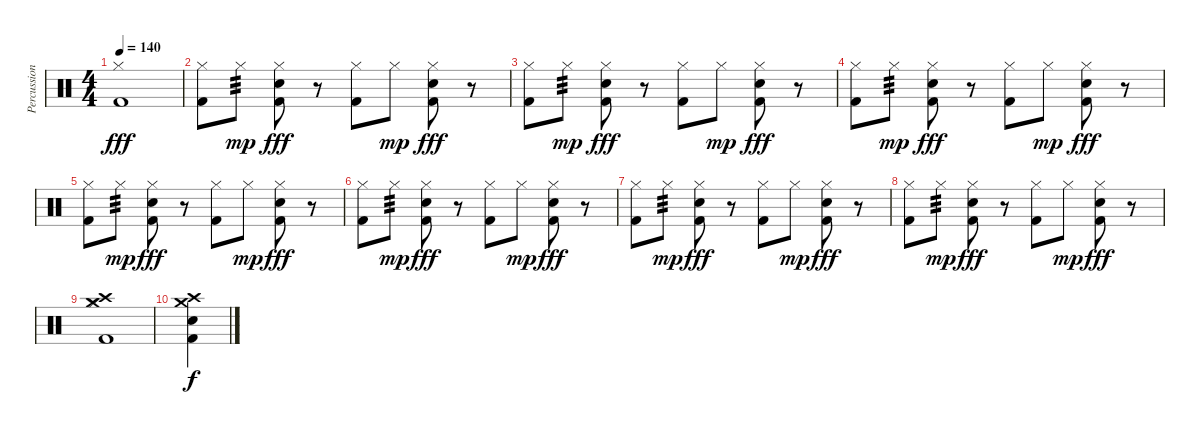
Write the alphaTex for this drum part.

\track ("Percussion" "Percussion") {instrument percussion}
\staff {score}
\articulation defaults
\ts (4 4)
\tempo 140
\clef neutral
\ks c
("Hi-Hat (closed)" "Kick (hit) 2").1{dy fff} |
("Hi-Hat (closed)" "Kick (hit) 2").8 "Hi-Hat (closed)".8{tp 3 dy mp} ("Hi-Hat (closed)" "Electric Snare (hit)" "Kick (hit) 2").8{dy fff} r.8 ("Hi-Hat (closed)" "Kick (hit) 2").8 "Hi-Hat (closed)".8{dy mp} ("Hi-Hat (closed)" "Electric Snare (hit)" "Kick (hit) 2").8{dy fff} r.8 |
("Hi-Hat (closed)" "Kick (hit) 2").8 "Hi-Hat (closed)".8{tp 3 dy mp} ("Hi-Hat (closed)" "Electric Snare (hit)" "Kick (hit) 2").8{dy fff} r.8 ("Hi-Hat (closed)" "Kick (hit) 2").8 "Hi-Hat (closed)".8{dy mp} ("Hi-Hat (closed)" "Electric Snare (hit)" "Kick (hit) 2").8{dy fff} r.8 |
("Hi-Hat (closed)" "Kick (hit) 2").8 "Hi-Hat (closed)".8{tp 3 dy mp} ("Hi-Hat (closed)" "Electric Snare (hit)" "Kick (hit) 2").8{dy fff} r.8 ("Hi-Hat (closed)" "Kick (hit) 2").8 "Hi-Hat (closed)".8{dy mp} ("Hi-Hat (closed)" "Electric Snare (hit)" "Kick (hit) 2").8{dy fff} r.8 |
("Hi-Hat (closed)" "Kick (hit) 2").8 "Hi-Hat (closed)".8{tp 3 dy mp} ("Hi-Hat (closed)" "Electric Snare (hit)" "Kick (hit) 2").8{dy fff} r.8 ("Hi-Hat (closed)" "Kick (hit) 2").8 "Hi-Hat (closed)".8{dy mp} ("Hi-Hat (closed)" "Electric Snare (hit)" "Kick (hit) 2").8{dy fff} r.8 |
("Hi-Hat (closed)" "Kick (hit) 2").8 "Hi-Hat (closed)".8{tp 3 dy mp} ("Hi-Hat (closed)" "Electric Snare (hit)" "Kick (hit) 2").8{dy fff} r.8 ("Hi-Hat (closed)" "Kick (hit) 2").8 "Hi-Hat (closed)".8{dy mp} ("Hi-Hat (closed)" "Electric Snare (hit)" "Kick (hit) 2").8{dy fff} r.8 |
("Hi-Hat (closed)" "Kick (hit) 2").8 "Hi-Hat (closed)".8{tp 3 dy mp} ("Hi-Hat (closed)" "Electric Snare (hit)" "Kick (hit) 2").8{dy fff} r.8 ("Hi-Hat (closed)" "Kick (hit) 2").8 "Hi-Hat (closed)".8{dy mp} ("Hi-Hat (closed)" "Electric Snare (hit)" "Kick (hit) 2").8{dy fff} r.8 |
("Hi-Hat (closed)" "Kick (hit) 2").8 "Hi-Hat (closed)".8{tp 3 dy mp} ("Hi-Hat (closed)" "Electric Snare (hit)" "Kick (hit) 2").8{dy fff} r.8 ("Hi-Hat (closed)" "Kick (hit) 2").8 "Hi-Hat (closed)".8{dy mp} ("Hi-Hat (closed)" "Electric Snare (hit)" "Kick (hit) 2").8{dy fff} r.8 |
("Crash medium (hit)" "Crash high (hit)" "Hi-Hat (closed)" "Kick (hit) 2").1 |
("Crash high (hit)" "Crash medium (hit)" "Electric Snare (hit)" "Kick (hit) 2").4{dy f}
